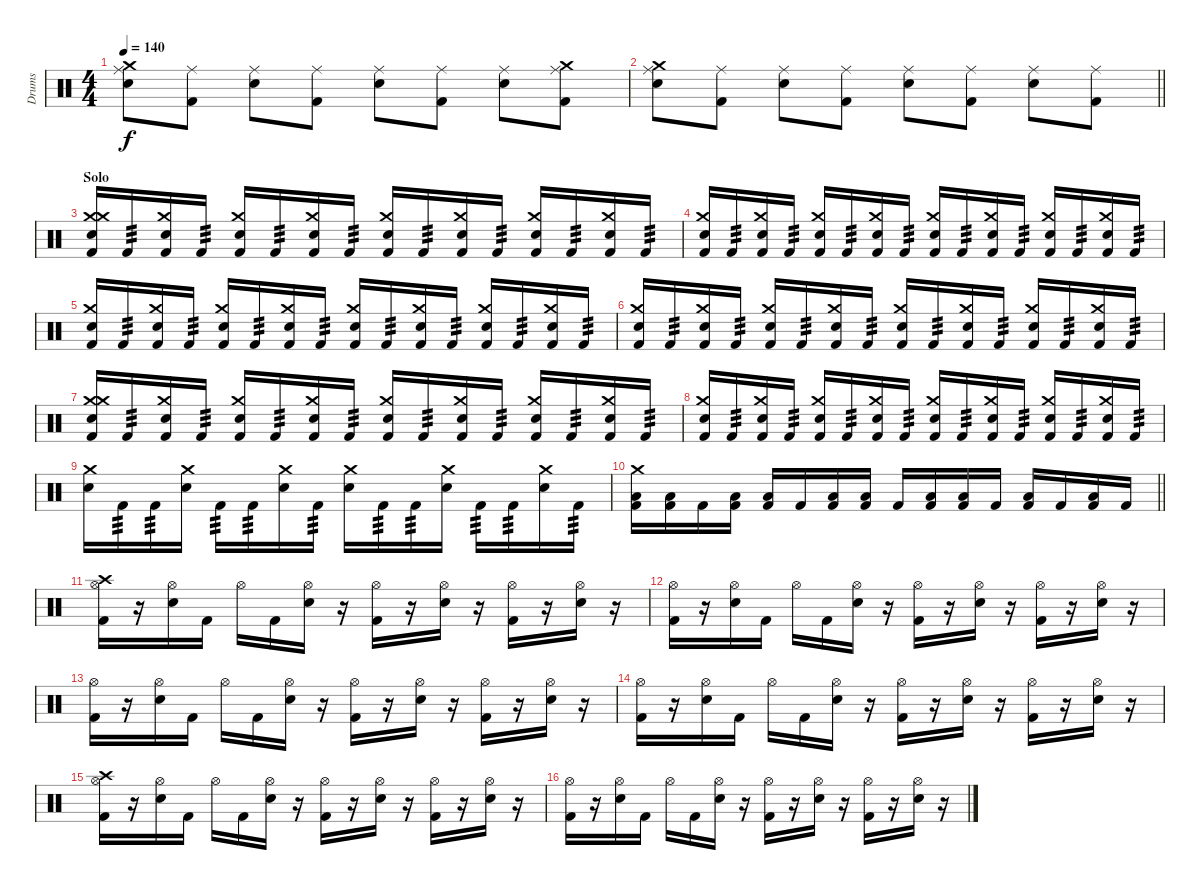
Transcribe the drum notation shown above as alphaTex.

\track ("Drums" "Drums") {instrument percussion}
\staff {score}
\articulation defaults
\ts (4 4)
\tempo 140
\clef neutral
\ks c
("Snare (hit) 2" "Ride (middle)" "Crash medium (hit)").8{dy f} ("Kick (hit) 2" "Ride (middle)").8 ("Snare (hit) 2" "Ride (middle)").8 ("Kick (hit) 2" "Ride (middle)").8 ("Snare (hit) 2" "Ride (middle)").8 ("Kick (hit) 2" "Ride (middle)").8 ("Snare (hit) 2" "Ride (middle)").8 ("Kick (hit) 2" "Ride (middle)" "Crash medium (hit)").8 |
\barLineRight lightlight
("Snare (hit) 2" "Ride (middle)" "Crash medium (hit)").8 ("Kick (hit) 2" "Ride (middle)").8 ("Snare (hit) 2" "Ride (middle)").8 ("Kick (hit) 2" "Ride (middle)").8 ("Snare (hit) 2" "Ride (middle)").8 ("Kick (hit) 2" "Ride (middle)").8 ("Snare (hit) 2" "Ride (middle)").8 ("Kick (hit) 2" "Ride (middle)").8 |
\section ("" "Solo")
("Snare (hit) 2" "Kick (hit) 2" "Crash medium (hit)" "Crash medium (hit)").16 "Kick (hit) 2".16{tp 3} ("Snare (hit) 2" "Kick (hit) 2" "Crash medium (hit)").16 "Kick (hit) 2".16{tp 3} ("Snare (hit) 2" "Kick (hit) 2" "Crash medium (hit)").16 "Kick (hit) 2".16{tp 3} ("Snare (hit) 2" "Kick (hit) 2" "Crash medium (hit)").16 "Kick (hit) 2".16{tp 3} ("Snare (hit) 2" "Kick (hit) 2" "Crash medium (hit)").16 "Kick (hit) 2".16{tp 3} ("Snare (hit) 2" "Kick (hit) 2" "Crash medium (hit)").16 "Kick (hit) 2".16{tp 3} ("Snare (hit) 2" "Kick (hit) 2" "Crash medium (hit)").16 "Kick (hit) 2".16{tp 3} ("Snare (hit) 2" "Kick (hit) 2" "Crash medium (hit)").16 "Kick (hit) 2".16{tp 3} |
("Snare (hit) 2" "Kick (hit) 2" "Crash medium (hit)").16 "Kick (hit) 2".16{tp 3} ("Snare (hit) 2" "Kick (hit) 2" "Crash medium (hit)").16 "Kick (hit) 2".16{tp 3} ("Snare (hit) 2" "Kick (hit) 2" "Crash medium (hit)").16 "Kick (hit) 2".16{tp 3} ("Snare (hit) 2" "Kick (hit) 2" "Crash medium (hit)").16 "Kick (hit) 2".16{tp 3} ("Snare (hit) 2" "Kick (hit) 2" "Crash medium (hit)").16 "Kick (hit) 2".16{tp 3} ("Snare (hit) 2" "Kick (hit) 2" "Crash medium (hit)").16 "Kick (hit) 2".16{tp 3} ("Snare (hit) 2" "Kick (hit) 2" "Crash medium (hit)").16 "Kick (hit) 2".16{tp 3} ("Snare (hit) 2" "Kick (hit) 2" "Crash medium (hit)").16 "Kick (hit) 2".16{tp 3} |
("Snare (hit) 2" "Kick (hit) 2" "Crash medium (hit)").16 "Kick (hit) 2".16{tp 3} ("Snare (hit) 2" "Kick (hit) 2" "Crash medium (hit)").16 "Kick (hit) 2".16{tp 3} ("Snare (hit) 2" "Kick (hit) 2" "Crash medium (hit)").16 "Kick (hit) 2".16{tp 3} ("Snare (hit) 2" "Kick (hit) 2" "Crash medium (hit)").16 "Kick (hit) 2".16{tp 3} ("Snare (hit) 2" "Kick (hit) 2" "Crash medium (hit)").16 "Kick (hit) 2".16{tp 3} ("Snare (hit) 2" "Kick (hit) 2" "Crash medium (hit)").16 "Kick (hit) 2".16{tp 3} ("Snare (hit) 2" "Kick (hit) 2" "Crash medium (hit)").16 "Kick (hit) 2".16{tp 3} ("Snare (hit) 2" "Kick (hit) 2" "Crash medium (hit)").16 "Kick (hit) 2".16{tp 3} |
("Snare (hit) 2" "Kick (hit) 2" "Crash medium (hit)").16 "Kick (hit) 2".16{tp 3} ("Snare (hit) 2" "Kick (hit) 2" "Crash medium (hit)").16 "Kick (hit) 2".16{tp 3} ("Snare (hit) 2" "Kick (hit) 2" "Crash medium (hit)").16 "Kick (hit) 2".16{tp 3} ("Snare (hit) 2" "Kick (hit) 2" "Crash medium (hit)").16 "Kick (hit) 2".16{tp 3} ("Snare (hit) 2" "Kick (hit) 2" "Crash medium (hit)").16 "Kick (hit) 2".16{tp 3} ("Snare (hit) 2" "Kick (hit) 2" "Crash medium (hit)").16 "Kick (hit) 2".16{tp 3} ("Snare (hit) 2" "Kick (hit) 2" "Crash medium (hit)").16 "Kick (hit) 2".16{tp 3} ("Snare (hit) 2" "Kick (hit) 2" "Crash medium (hit)").16 "Kick (hit) 2".16{tp 3} |
("Snare (hit) 2" "Kick (hit) 2" "Crash medium (hit)" "Crash medium (hit)").16 "Kick (hit) 2".16{tp 3} ("Snare (hit) 2" "Kick (hit) 2" "Crash medium (hit)").16 "Kick (hit) 2".16{tp 3} ("Snare (hit) 2" "Kick (hit) 2" "Crash medium (hit)").16 "Kick (hit) 2".16{tp 3} ("Snare (hit) 2" "Kick (hit) 2" "Crash medium (hit)").16 "Kick (hit) 2".16{tp 3} ("Snare (hit) 2" "Kick (hit) 2" "Crash medium (hit)").16 "Kick (hit) 2".16{tp 3} ("Snare (hit) 2" "Kick (hit) 2" "Crash medium (hit)").16 "Kick (hit) 2".16{tp 3} ("Snare (hit) 2" "Kick (hit) 2" "Crash medium (hit)").16 "Kick (hit) 2".16{tp 3} ("Snare (hit) 2" "Kick (hit) 2" "Crash medium (hit)").16 "Kick (hit) 2".16{tp 3} |
("Snare (hit) 2" "Kick (hit) 2" "Crash medium (hit)").16 "Kick (hit) 2".16{tp 3} ("Snare (hit) 2" "Kick (hit) 2" "Crash medium (hit)").16 "Kick (hit) 2".16{tp 3} ("Snare (hit) 2" "Kick (hit) 2" "Crash medium (hit)").16 "Kick (hit) 2".16{tp 3} ("Snare (hit) 2" "Kick (hit) 2" "Crash medium (hit)").16 "Kick (hit) 2".16{tp 3} ("Snare (hit) 2" "Kick (hit) 2" "Crash medium (hit)").16 "Kick (hit) 2".16{tp 3} ("Snare (hit) 2" "Kick (hit) 2" "Crash medium (hit)").16 "Kick (hit) 2".16{tp 3} ("Snare (hit) 2" "Kick (hit) 2" "Crash medium (hit)").16 "Kick (hit) 2".16{tp 3} ("Snare (hit) 2" "Kick (hit) 2" "Crash medium (hit)").16 "Kick (hit) 2".16{tp 3} |
("Snare (hit) 2" "Crash medium (hit)").16 "Kick (hit) 2".16{tp 3} "Kick (hit) 2".16{tp 3} ("Snare (hit) 2" "Crash medium (hit)").16 "Kick (hit) 2".16{tp 3} "Kick (hit) 2".16{tp 3} ("Snare (hit) 2" "Crash medium (hit)").16 "Kick (hit) 2".16{tp 3} ("Snare (hit) 2" "Crash medium (hit)").16 "Kick (hit) 2".16{tp 3} "Kick (hit) 2".16{tp 3} ("Snare (hit) 2" "Crash medium (hit)").16 "Kick (hit) 2".16{tp 3} "Kick (hit) 2".16{tp 3} ("Snare (hit) 2" "Crash medium (hit)").16 "Kick (hit) 2".16{tp 3} |
\barLineRight lightlight
("Low Floor Tom (hit)" "Kick (hit) 2" "Crash medium (hit)").16 ("Low Floor Tom (hit)" "Kick (hit) 2").16 "Kick (hit) 2".16 ("Low Floor Tom (hit)" "Kick (hit) 2").16 ("Low Floor Tom (hit)" "Kick (hit) 2").16 "Kick (hit) 2".16 ("Low Floor Tom (hit)" "Kick (hit) 2").16 ("Low Floor Tom (hit)" "Kick (hit) 2").16 "Kick (hit) 2".16 ("Low Floor Tom (hit)" "Kick (hit) 2").16 ("Low Floor Tom (hit)" "Kick (hit) 2").16 "Kick (hit) 2".16 ("Low Floor Tom (hit)" "Kick (hit) 2").16 "Kick (hit) 2".16 ("Low Floor Tom (hit)" "Kick (hit) 2").16 "Kick (hit) 2".16 |
\section ("" "")
("Kick (hit) 2" "Hi-Hat (open)" "Crash high (hit)").16 r.16 ("Snare (hit) 2" "Hi-Hat (open)").16 "Kick (hit) 2".16 "Hi-Hat (open)".16 "Kick (hit) 2".16 ("Snare (hit) 2" "Hi-Hat (open)").16 r.16 ("Kick (hit) 2" "Hi-Hat (open)").16 r.16 ("Snare (hit) 2" "Hi-Hat (open)").16 r.16 ("Kick (hit) 2" "Hi-Hat (open)").16 r.16 ("Snare (hit) 2" "Hi-Hat (open)").16 r.16 |
("Kick (hit) 2" "Hi-Hat (open)").16 r.16 ("Snare (hit) 2" "Hi-Hat (open)").16 "Kick (hit) 2".16 "Hi-Hat (open)".16 "Kick (hit) 2".16 ("Snare (hit) 2" "Hi-Hat (open)").16 r.16 ("Kick (hit) 2" "Hi-Hat (open)").16 r.16 ("Snare (hit) 2" "Hi-Hat (open)").16 r.16 ("Kick (hit) 2" "Hi-Hat (open)").16 r.16 ("Snare (hit) 2" "Hi-Hat (open)").16 r.16 |
("Kick (hit) 2" "Hi-Hat (open)").16 r.16 ("Snare (hit) 2" "Hi-Hat (open)").16 "Kick (hit) 2".16 "Hi-Hat (open)".16 "Kick (hit) 2".16 ("Snare (hit) 2" "Hi-Hat (open)").16 r.16 ("Kick (hit) 2" "Hi-Hat (open)").16 r.16 ("Snare (hit) 2" "Hi-Hat (open)").16 r.16 ("Kick (hit) 2" "Hi-Hat (open)").16 r.16 ("Snare (hit) 2" "Hi-Hat (open)").16 r.16 |
("Kick (hit) 2" "Hi-Hat (open)").16 r.16 ("Snare (hit) 2" "Hi-Hat (open)").16 "Kick (hit) 2".16 "Hi-Hat (open)".16 "Kick (hit) 2".16 ("Snare (hit) 2" "Hi-Hat (open)").16 r.16 ("Kick (hit) 2" "Hi-Hat (open)").16 r.16 ("Snare (hit) 2" "Hi-Hat (open)").16 r.16 ("Kick (hit) 2" "Hi-Hat (open)").16 r.16 ("Snare (hit) 2" "Hi-Hat (open)").16 r.16 |
("Kick (hit) 2" "Hi-Hat (open)" "Crash high (hit)").16 r.16 ("Snare (hit) 2" "Hi-Hat (open)").16 "Kick (hit) 2".16 "Hi-Hat (open)".16 "Kick (hit) 2".16 ("Snare (hit) 2" "Hi-Hat (open)").16 r.16 ("Kick (hit) 2" "Hi-Hat (open)").16 r.16 ("Snare (hit) 2" "Hi-Hat (open)").16 r.16 ("Kick (hit) 2" "Hi-Hat (open)").16 r.16 ("Snare (hit) 2" "Hi-Hat (open)").16 r.16 |
("Kick (hit) 2" "Hi-Hat (open)").16 r.16 ("Snare (hit) 2" "Hi-Hat (open)").16 "Kick (hit) 2".16 "Hi-Hat (open)".16 "Kick (hit) 2".16 ("Snare (hit) 2" "Hi-Hat (open)").16 r.16 ("Kick (hit) 2" "Hi-Hat (open)").16 r.16 ("Snare (hit) 2" "Hi-Hat (open)").16 r.16 ("Kick (hit) 2" "Hi-Hat (open)").16 r.16 ("Snare (hit) 2" "Hi-Hat (open)").16 r.16
